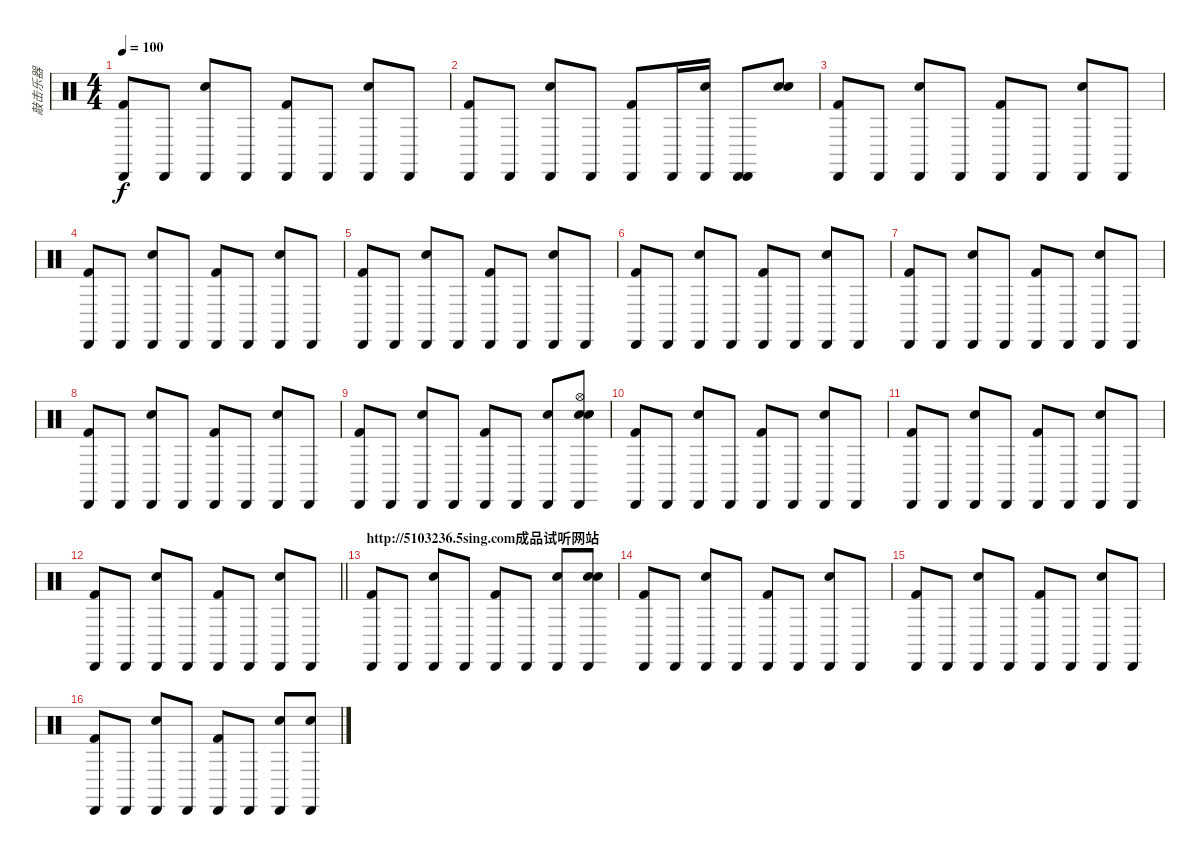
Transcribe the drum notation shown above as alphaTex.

\track ("敲击乐器" "敲击乐器") {instrument percussion}
\staff {score}
\articulation defaults
\ts (4 4)
\tempo 100
\clef neutral
\ks c
("Cabasa (hit)" "Kick (hit) 2").8{dy f} "Cabasa (hit)".8 ("Cabasa (hit)" "Snare (hit) 2").8 "Cabasa (hit)".8 ("Cabasa (hit)" "Kick (hit) 2").8 "Cabasa (hit)".8 ("Cabasa (hit)" "Snare (hit) 2").8 "Cabasa (hit)".8 |
("Cabasa (hit)" "Kick (hit) 2").8 "Cabasa (hit)".8 ("Cabasa (hit)" "Snare (hit) 2").8 "Cabasa (hit)".8 ("Cabasa (hit)" "Kick (hit) 2").8 "Cabasa (hit)".16 ("Cabasa (hit)" "Snare (hit) 2").16 ("Cabasa (hit)" "Cabasa (hit)").8 ("Electric Snare (hit)" "Snare (hit) 2").8 |
("Cabasa (hit)" "Kick (hit) 2").8 "Cabasa (hit)".8 ("Cabasa (hit)" "Snare (hit) 2").8 "Cabasa (hit)".8 ("Cabasa (hit)" "Kick (hit) 2").8 "Cabasa (hit)".8 ("Cabasa (hit)" "Snare (hit) 2").8 "Cabasa (hit)".8 |
("Cabasa (hit)" "Kick (hit) 2").8 "Cabasa (hit)".8 ("Cabasa (hit)" "Snare (hit) 2").8 "Cabasa (hit)".8 ("Cabasa (hit)" "Kick (hit) 2").8 "Cabasa (hit)".8 ("Cabasa (hit)" "Snare (hit) 2").8 "Cabasa (hit)".8 |
("Cabasa (hit)" "Kick (hit) 2").8 "Cabasa (hit)".8 ("Cabasa (hit)" "Snare (hit) 2").8 "Cabasa (hit)".8 ("Cabasa (hit)" "Kick (hit) 2").8 "Cabasa (hit)".8 ("Cabasa (hit)" "Snare (hit) 2").8 "Cabasa (hit)".8 |
("Cabasa (hit)" "Kick (hit) 2").8 "Cabasa (hit)".8 ("Cabasa (hit)" "Snare (hit) 2").8 "Cabasa (hit)".8 ("Cabasa (hit)" "Kick (hit) 2").8 "Cabasa (hit)".8 ("Cabasa (hit)" "Snare (hit) 2").8 "Cabasa (hit)".8 |
("Cabasa (hit)" "Kick (hit) 2").8 "Cabasa (hit)".8 ("Cabasa (hit)" "Snare (hit) 2").8 "Cabasa (hit)".8 ("Cabasa (hit)" "Kick (hit) 2").8 "Cabasa (hit)".8 ("Cabasa (hit)" "Snare (hit) 2").8 "Cabasa (hit)".8 |
("Cabasa (hit)" "Kick (hit) 2").8 "Cabasa (hit)".8 ("Cabasa (hit)" "Snare (hit) 2").8 "Cabasa (hit)".8 ("Cabasa (hit)" "Kick (hit) 2").8 "Cabasa (hit)".8 ("Cabasa (hit)" "Snare (hit) 2").8 "Cabasa (hit)".8 |
("Cabasa (hit)" "Kick (hit) 2").8 "Cabasa (hit)".8 ("Cabasa (hit)" "Snare (hit) 2").8 "Cabasa (hit)".8 ("Cabasa (hit)" "Kick (hit) 2").8 "Cabasa (hit)".8 ("Cabasa (hit)" "Snare (hit) 2").8 ("Cabasa (hit)" "Hi-Hat (open)" "Electric Snare (hit)" "Snare (hit) 2").8 |
("Cabasa (hit)" "Kick (hit) 2").8 "Cabasa (hit)".8 ("Cabasa (hit)" "Snare (hit) 2").8 "Cabasa (hit)".8 ("Cabasa (hit)" "Kick (hit) 2").8 "Cabasa (hit)".8 ("Cabasa (hit)" "Snare (hit) 2").8 "Cabasa (hit)".8 |
("Cabasa (hit)" "Kick (hit) 2").8 "Cabasa (hit)".8 ("Cabasa (hit)" "Snare (hit) 2").8 "Cabasa (hit)".8 ("Cabasa (hit)" "Kick (hit) 2").8 "Cabasa (hit)".8 ("Cabasa (hit)" "Snare (hit) 2").8 "Cabasa (hit)".8 |
\barLineRight lightlight
("Cabasa (hit)" "Kick (hit) 2").8 "Cabasa (hit)".8 ("Cabasa (hit)" "Snare (hit) 2").8 "Cabasa (hit)".8 ("Cabasa (hit)" "Kick (hit) 2").8 "Cabasa (hit)".8 ("Cabasa (hit)" "Snare (hit) 2").8 "Cabasa (hit)".8 |
\section ("" "http://5103236.5sing.com成品试听网站")
("Cabasa (hit)" "Kick (hit) 2").8 "Cabasa (hit)".8 ("Cabasa (hit)" "Snare (hit) 2").8 "Cabasa (hit)".8 ("Cabasa (hit)" "Kick (hit) 2").8 "Cabasa (hit)".8 ("Cabasa (hit)" "Snare (hit) 2").8 ("Cabasa (hit)" "Electric Snare (hit)" "Snare (hit) 2").8 |
("Cabasa (hit)" "Kick (hit) 2").8 "Cabasa (hit)".8 ("Cabasa (hit)" "Snare (hit) 2").8 "Cabasa (hit)".8 ("Cabasa (hit)" "Kick (hit) 2").8 "Cabasa (hit)".8 ("Cabasa (hit)" "Snare (hit) 2").8 "Cabasa (hit)".8 |
("Cabasa (hit)" "Kick (hit) 2").8 "Cabasa (hit)".8 ("Cabasa (hit)" "Snare (hit) 2").8 "Cabasa (hit)".8 ("Cabasa (hit)" "Kick (hit) 2").8 "Cabasa (hit)".8 ("Cabasa (hit)" "Snare (hit) 2").8 "Cabasa (hit)".8 |
("Cabasa (hit)" "Kick (hit) 2").8 "Cabasa (hit)".8 ("Cabasa (hit)" "Snare (hit) 2").8 "Cabasa (hit)".8 ("Cabasa (hit)" "Kick (hit) 2").8 "Cabasa (hit)".8 ("Cabasa (hit)" "Snare (hit) 2").8 ("Cabasa (hit)" "Electric Snare (hit)").8
